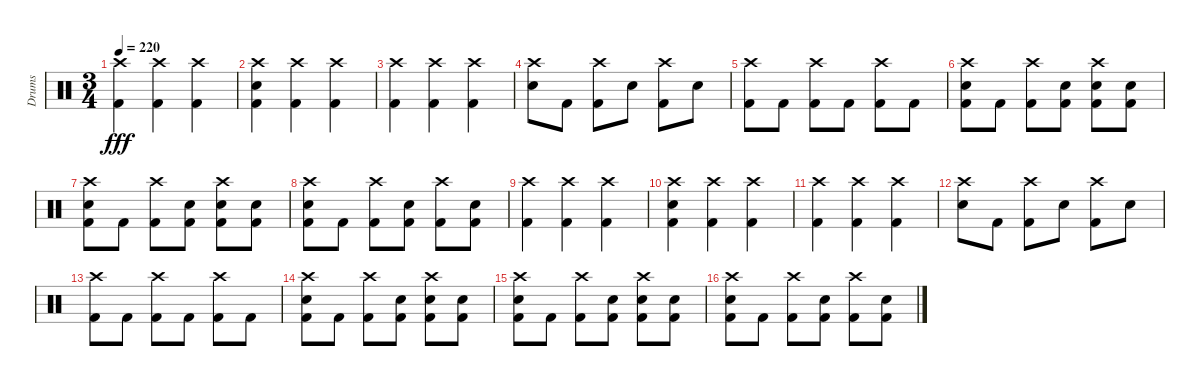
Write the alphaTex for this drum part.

\track ("Drums" "Drums") {instrument percussion}
\staff {score}
\articulation defaults
\ts (3 4)
\tempo 220
\clef neutral
\ks c
("Crash high (hit)" "Kick (hit) 2").4{dy fff} ("Crash high (hit)" "Kick (hit) 2").4 ("Crash high (hit)" "Kick (hit) 2").4 |
("Crash high (hit)" "Electric Snare (hit)" "Kick (hit) 2").4 ("Crash high (hit)" "Kick (hit) 2").4 ("Crash high (hit)" "Kick (hit) 2").4 |
("Crash high (hit)" "Kick (hit) 2").4 ("Crash high (hit)" "Kick (hit) 2").4 ("Crash high (hit)" "Kick (hit) 2").4 |
("Crash high (hit)" "Electric Snare (hit)").8 "Kick (hit) 2".8 ("Crash high (hit)" "Kick (hit) 2").8 "Electric Snare (hit)".8 ("Crash high (hit)" "Kick (hit) 2").8 "Electric Snare (hit)".8 |
("Crash high (hit)" "Kick (hit) 2").8 "Kick (hit) 2".8 ("Crash high (hit)" "Kick (hit) 2").8 "Kick (hit) 2".8 ("Crash high (hit)" "Kick (hit) 2").8 "Kick (hit) 2".8 |
("Crash high (hit)" "Electric Snare (hit)" "Kick (hit) 2").8 "Kick (hit) 2".8 ("Crash high (hit)" "Kick (hit) 2").8 ("Electric Snare (hit)" "Kick (hit) 2").8 ("Crash high (hit)" "Electric Snare (hit)" "Kick (hit) 2").8 ("Electric Snare (hit)" "Kick (hit) 2").8 |
("Crash high (hit)" "Electric Snare (hit)" "Kick (hit) 2").8 "Kick (hit) 2".8 ("Crash high (hit)" "Kick (hit) 2").8 ("Electric Snare (hit)" "Kick (hit) 2").8 ("Crash high (hit)" "Electric Snare (hit)" "Kick (hit) 2").8 ("Electric Snare (hit)" "Kick (hit) 2").8 |
("Crash high (hit)" "Electric Snare (hit)" "Kick (hit) 2").8 "Kick (hit) 2".8 ("Crash high (hit)" "Kick (hit) 2").8 ("Electric Snare (hit)" "Kick (hit) 2").8 ("Crash high (hit)" "Kick (hit) 2").8 ("Electric Snare (hit)" "Kick (hit) 2").8 |
("Crash high (hit)" "Kick (hit) 2").4 ("Crash high (hit)" "Kick (hit) 2").4 ("Crash high (hit)" "Kick (hit) 2").4 |
("Crash high (hit)" "Electric Snare (hit)" "Kick (hit) 2").4 ("Crash high (hit)" "Kick (hit) 2").4 ("Crash high (hit)" "Kick (hit) 2").4 |
("Crash high (hit)" "Kick (hit) 2").4 ("Crash high (hit)" "Kick (hit) 2").4 ("Crash high (hit)" "Kick (hit) 2").4 |
("Crash high (hit)" "Electric Snare (hit)").8 "Kick (hit) 2".8 ("Crash high (hit)" "Kick (hit) 2").8 "Electric Snare (hit)".8 ("Crash high (hit)" "Kick (hit) 2").8 "Electric Snare (hit)".8 |
("Crash high (hit)" "Kick (hit) 2").8 "Kick (hit) 2".8 ("Crash high (hit)" "Kick (hit) 2").8 "Kick (hit) 2".8 ("Crash high (hit)" "Kick (hit) 2").8 "Kick (hit) 2".8 |
("Crash high (hit)" "Electric Snare (hit)" "Kick (hit) 2").8 "Kick (hit) 2".8 ("Crash high (hit)" "Kick (hit) 2").8 ("Electric Snare (hit)" "Kick (hit) 2").8 ("Crash high (hit)" "Electric Snare (hit)" "Kick (hit) 2").8 ("Electric Snare (hit)" "Kick (hit) 2").8 |
("Crash high (hit)" "Electric Snare (hit)" "Kick (hit) 2").8 "Kick (hit) 2".8 ("Crash high (hit)" "Kick (hit) 2").8 ("Electric Snare (hit)" "Kick (hit) 2").8 ("Crash high (hit)" "Electric Snare (hit)" "Kick (hit) 2").8 ("Electric Snare (hit)" "Kick (hit) 2").8 |
("Crash high (hit)" "Electric Snare (hit)" "Kick (hit) 2").8 "Kick (hit) 2".8 ("Crash high (hit)" "Kick (hit) 2").8 ("Electric Snare (hit)" "Kick (hit) 2").8 ("Crash high (hit)" "Kick (hit) 2").8 ("Electric Snare (hit)" "Kick (hit) 2").8
